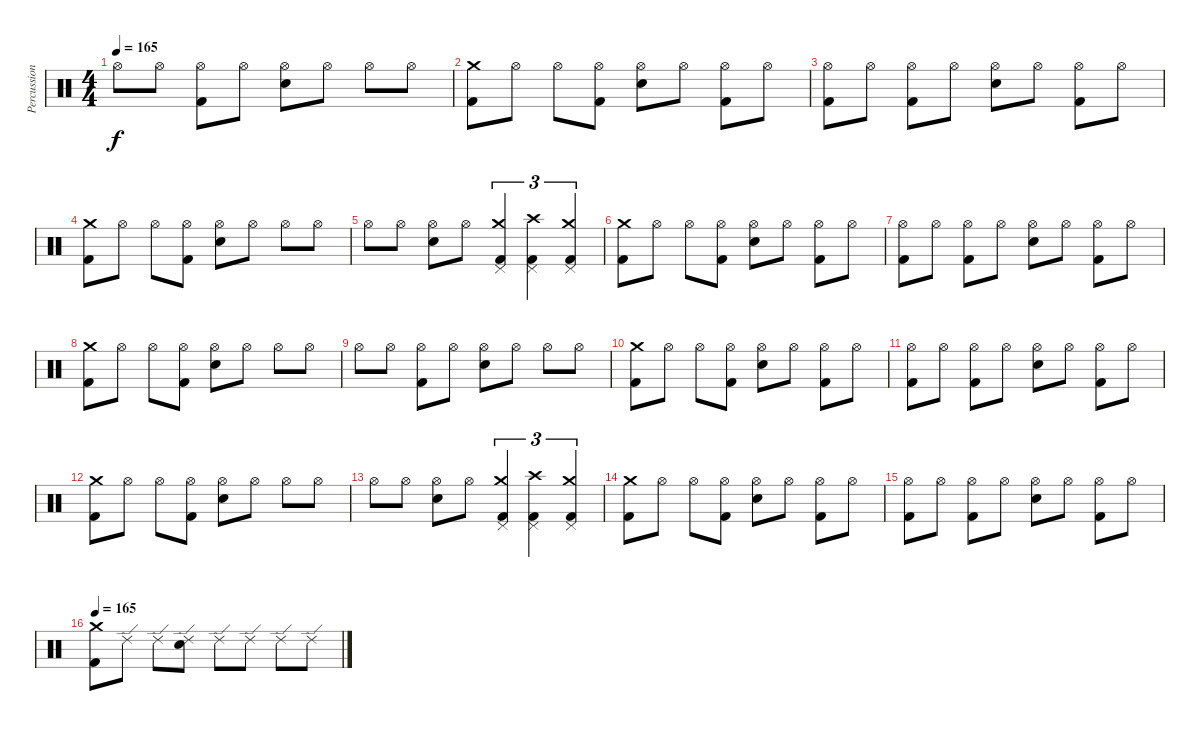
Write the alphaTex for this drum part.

\track ("Percussion" "Percussion") {instrument percussion}
\staff {score}
\articulation defaults
\ts (4 4)
\tempo 165
\clef neutral
\ks c "Hi-Hat (open)".8{dy f} "Hi-Hat (open)".8
("Hi-Hat (open)" "Kick (hit) 2").8 "Hi-Hat (open)".8 ("Hi-Hat (open)" "Electric Snare (hit)").8 "Hi-Hat (open)".8 "Hi-Hat (open)".8 "Hi-Hat (open)".8 |
("Crash medium (hit)" "Kick (hit) 2").8 "Hi-Hat (open)".8 "Hi-Hat (open)".8 ("Hi-Hat (open)" "Kick (hit) 2").8 ("Hi-Hat (open)" "Electric Snare (hit)").8 "Hi-Hat (open)".8 ("Hi-Hat (open)" "Kick (hit) 2").8 "Hi-Hat (open)".8 |
("Hi-Hat (open)" "Kick (hit) 2").8 "Hi-Hat (open)".8 ("Hi-Hat (open)" "Kick (hit) 2").8 "Hi-Hat (open)".8 ("Hi-Hat (open)" "Electric Snare (hit)").8 "Hi-Hat (open)".8 ("Hi-Hat (open)" "Kick (hit) 2").8 "Hi-Hat (open)".8 |
("Crash medium (hit)" "Kick (hit) 2").8 "Hi-Hat (open)".8 "Hi-Hat (open)".8 ("Hi-Hat (open)" "Kick (hit) 2").8 ("Hi-Hat (open)" "Electric Snare (hit)").8 "Hi-Hat (open)".8 "Hi-Hat (open)".8 "Hi-Hat (open)".8 |
"Hi-Hat (open)".8 "Hi-Hat (open)".8 ("Hi-Hat (open)" "Electric Snare (hit)").8 "Hi-Hat (open)".8 ("Crash medium (hit)" "Pedal Hi-Hat (hit)" "Kick (hit) 2").4{tu (3 2)} ("Crash high (hit)" "Pedal Hi-Hat (hit)" "Kick (hit) 2").4{tu (3 2)} ("Crash medium (hit)" "Pedal Hi-Hat (hit)" "Kick (hit) 2").4{tu (3 2)} |
("Crash medium (hit)" "Kick (hit) 2").8 "Hi-Hat (open)".8 "Hi-Hat (open)".8 ("Hi-Hat (open)" "Kick (hit) 2").8 ("Hi-Hat (open)" "Electric Snare (hit)").8 "Hi-Hat (open)".8 ("Hi-Hat (open)" "Kick (hit) 2").8 "Hi-Hat (open)".8 |
("Hi-Hat (open)" "Kick (hit) 2").8 "Hi-Hat (open)".8 ("Hi-Hat (open)" "Kick (hit) 2").8 "Hi-Hat (open)".8 ("Hi-Hat (open)" "Electric Snare (hit)").8 "Hi-Hat (open)".8 ("Hi-Hat (open)" "Kick (hit) 2").8 "Hi-Hat (open)".8 |
("Crash medium (hit)" "Kick (hit) 2").8 "Hi-Hat (open)".8 "Hi-Hat (open)".8 ("Hi-Hat (open)" "Kick (hit) 2").8 ("Hi-Hat (open)" "Electric Snare (hit)").8 "Hi-Hat (open)".8 "Hi-Hat (open)".8 "Hi-Hat (open)".8 |
"Hi-Hat (open)".8 "Hi-Hat (open)".8 ("Hi-Hat (open)" "Kick (hit) 2").8 "Hi-Hat (open)".8 ("Hi-Hat (open)" "Electric Snare (hit)").8 "Hi-Hat (open)".8 "Hi-Hat (open)".8 "Hi-Hat (open)".8 |
("Crash medium (hit)" "Kick (hit) 2").8 "Hi-Hat (open)".8 "Hi-Hat (open)".8 ("Hi-Hat (open)" "Kick (hit) 2").8 ("Hi-Hat (open)" "Electric Snare (hit)").8 "Hi-Hat (open)".8 ("Hi-Hat (open)" "Kick (hit) 2").8 "Hi-Hat (open)".8 |
("Hi-Hat (open)" "Kick (hit) 2").8 "Hi-Hat (open)".8 ("Hi-Hat (open)" "Kick (hit) 2").8 "Hi-Hat (open)".8 ("Hi-Hat (open)" "Electric Snare (hit)").8 "Hi-Hat (open)".8 ("Hi-Hat (open)" "Kick (hit) 2").8 "Hi-Hat (open)".8 |
("Crash medium (hit)" "Kick (hit) 2").8 "Hi-Hat (open)".8 "Hi-Hat (open)".8 ("Hi-Hat (open)" "Kick (hit) 2").8 ("Hi-Hat (open)" "Electric Snare (hit)").8 "Hi-Hat (open)".8 "Hi-Hat (open)".8 "Hi-Hat (open)".8 |
"Hi-Hat (open)".8 "Hi-Hat (open)".8 ("Hi-Hat (open)" "Electric Snare (hit)").8 "Hi-Hat (open)".8 ("Crash medium (hit)" "Pedal Hi-Hat (hit)" "Kick (hit) 2").4{tu (3 2)} ("Crash high (hit)" "Pedal Hi-Hat (hit)" "Kick (hit) 2").4{tu (3 2)} ("Crash medium (hit)" "Pedal Hi-Hat (hit)" "Kick (hit) 2").4{tu (3 2)} |
("Crash medium (hit)" "Kick (hit) 2").8 "Hi-Hat (open)".8 "Hi-Hat (open)".8 ("Hi-Hat (open)" "Kick (hit) 2").8 ("Hi-Hat (open)" "Electric Snare (hit)").8 "Hi-Hat (open)".8 ("Hi-Hat (open)" "Kick (hit) 2").8 "Hi-Hat (open)".8 |
("Hi-Hat (open)" "Kick (hit) 2").8 "Hi-Hat (open)".8 ("Hi-Hat (open)" "Kick (hit) 2").8 "Hi-Hat (open)".8 ("Hi-Hat (open)" "Electric Snare (hit)").8 "Hi-Hat (open)".8 ("Hi-Hat (open)" "Kick (hit) 2").8 "Hi-Hat (open)".8 |
\tempo 165
("Crash medium (hit)" "Kick (hit) 2").8 "Ride (edge) 2".8 "Ride (edge) 2".8 ("Ride (edge) 2" "Electric Snare (hit)").8 "Ride (edge) 2".8 "Ride (edge) 2".8 "Ride (edge) 2".8 "Ride (edge) 2".8
